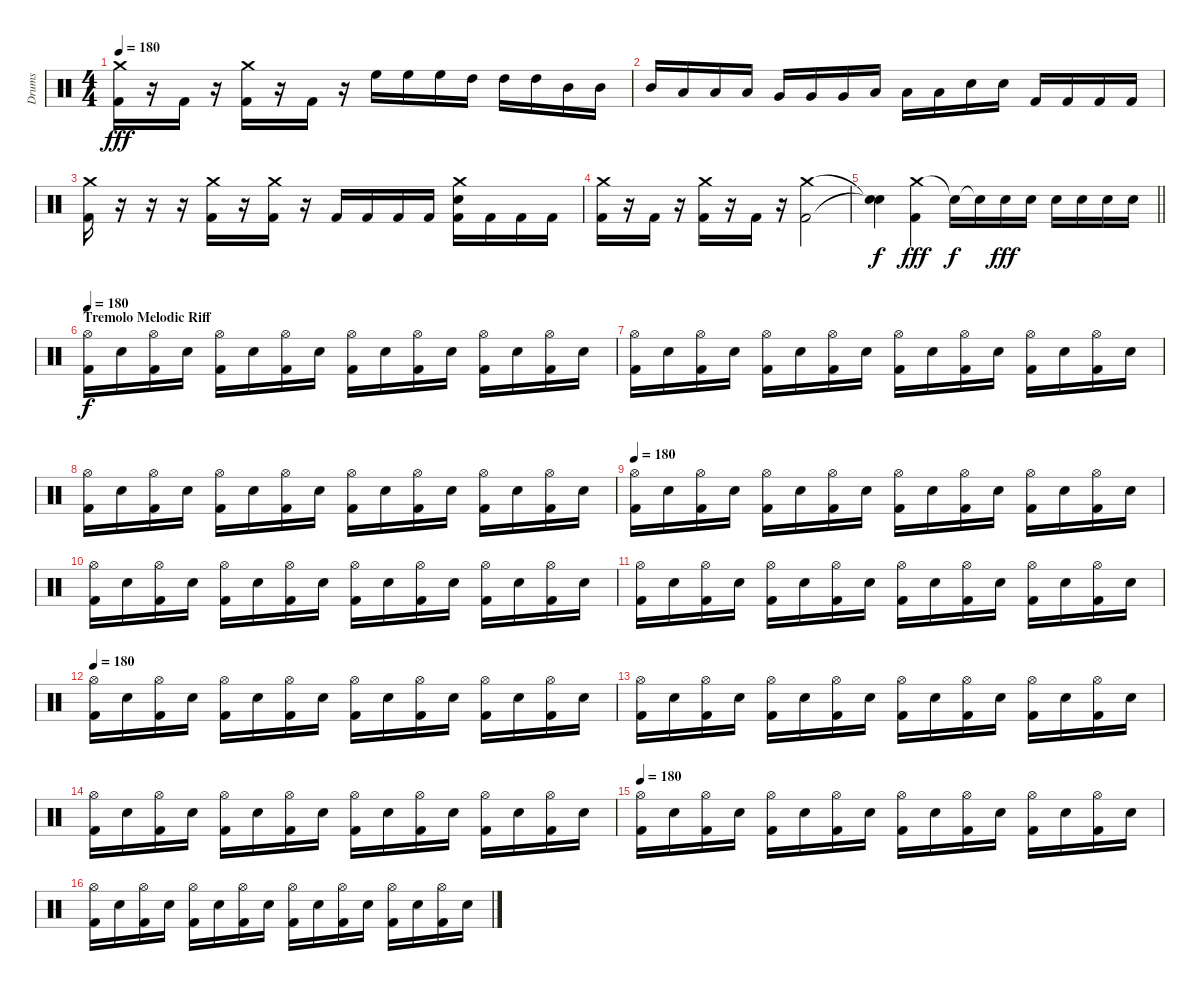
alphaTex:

\track ("Drums" "Drums") {instrument percussion}
\staff {score}
\articulation defaults
\ts (4 4)
\tempo 180
\clef neutral
\ks c
("Crash medium (hit)" "Kick (hit) 2").16{dy fff} r.16 "Kick (hit) 2".16 r.16 ("Crash medium (hit)" "Kick (hit) 2").16 r.16 "Kick (hit) 2".16 r.16 "High Floor Tom (hit)".16 "High Floor Tom (hit)".16 "High Floor Tom (hit)".16 "High Tom (hit)".16 "High Tom (hit)".16 "High Tom (hit)".16 "Mid Tom (hit)".16 "Mid Tom (hit)".16 |
"Mid Tom (hit)".16 "Low Tom (hit)".16 "Low Tom (hit)".16 "Low Tom (hit)".16 "Very Low Tom (hit)".16 "Very Low Tom (hit)".16 "Very Low Tom (hit)".16 "Low Floor Tom (hit)".16 "Low Floor Tom (hit)".16 "Low Floor Tom (hit)".16 "Electric Snare (hit)".16 "Electric Snare (hit)".16 "Kick (hit) 2".16 "Kick (hit) 2".16 "Kick (hit) 2".16 "Kick (hit) 2".16 |
("Crash medium (hit)" "Kick (hit) 2").16 r.16 r.16 r.16 ("Crash medium (hit)" "Kick (hit) 2").16 r.16 ("Crash medium (hit)" "Kick (hit) 2").16 r.16 "Kick (hit) 2".16 "Kick (hit) 2".16 "Kick (hit) 2".16 "Kick (hit) 2".16 ("Crash medium (hit)" "Electric Snare (hit)" "Kick (hit) 2").16 "Kick (hit) 2".16 "Kick (hit) 2".16 "Kick (hit) 2".16 |
("Crash medium (hit)" "Kick (hit) 2").16 r.16 "Kick (hit) 2".16 r.16 ("Crash medium (hit)" "Kick (hit) 2").16 r.16 "Kick (hit) 2".16 r.16 ("Crash medium (hit)" "Kick (hit) 2").2 |
\barLineRight lightlight
("Snare (hit)"{t} "Snare (hit)"{t}).4{dy f} ("Crash medium (hit)" "Kick (hit) 2").4{dy fff} "Electric Snare (hit)"{t}.16{dy f} "Electric Snare (hit)"{t}.16 "Electric Snare (hit)".16{dy fff} "Electric Snare (hit)".16 "Electric Snare (hit)".16 "Electric Snare (hit)".16 "Electric Snare (hit)".16 "Electric Snare (hit)".16 |
\section ("" "Tremolo Melodic Riff")
\tempo 180
("Hi-Hat (open)" "Kick (hit) 2").16{dy f} "Electric Snare (hit)".16 ("Hi-Hat (open)" "Kick (hit) 2").16 "Electric Snare (hit)".16 ("Hi-Hat (open)" "Kick (hit) 2").16 "Electric Snare (hit)".16 ("Hi-Hat (open)" "Kick (hit) 2").16 "Electric Snare (hit)".16 ("Hi-Hat (open)" "Kick (hit) 2").16 "Electric Snare (hit)".16 ("Hi-Hat (open)" "Kick (hit) 2").16 "Electric Snare (hit)".16 ("Hi-Hat (open)" "Kick (hit) 2").16 "Electric Snare (hit)".16 ("Hi-Hat (open)" "Kick (hit) 2").16 "Electric Snare (hit)".16 |
("Hi-Hat (open)" "Kick (hit) 2").16 "Electric Snare (hit)".16 ("Hi-Hat (open)" "Kick (hit) 2").16 "Electric Snare (hit)".16 ("Hi-Hat (open)" "Kick (hit) 2").16 "Electric Snare (hit)".16 ("Hi-Hat (open)" "Kick (hit) 2").16 "Electric Snare (hit)".16 ("Hi-Hat (open)" "Kick (hit) 2").16 "Electric Snare (hit)".16 ("Hi-Hat (open)" "Kick (hit) 2").16 "Electric Snare (hit)".16 ("Hi-Hat (open)" "Kick (hit) 2").16 "Electric Snare (hit)".16 ("Hi-Hat (open)" "Kick (hit) 2").16 "Electric Snare (hit)".16 |
("Hi-Hat (open)" "Kick (hit) 2").16 "Electric Snare (hit)".16 ("Hi-Hat (open)" "Kick (hit) 2").16 "Electric Snare (hit)".16 ("Hi-Hat (open)" "Kick (hit) 2").16 "Electric Snare (hit)".16 ("Hi-Hat (open)" "Kick (hit) 2").16 "Electric Snare (hit)".16 ("Hi-Hat (open)" "Kick (hit) 2").16 "Electric Snare (hit)".16 ("Hi-Hat (open)" "Kick (hit) 2").16 "Electric Snare (hit)".16 ("Hi-Hat (open)" "Kick (hit) 2").16 "Electric Snare (hit)".16 ("Hi-Hat (open)" "Kick (hit) 2").16 "Electric Snare (hit)".16 |
\tempo 180
("Hi-Hat (open)" "Kick (hit) 2").16 "Electric Snare (hit)".16 ("Hi-Hat (open)" "Kick (hit) 2").16 "Electric Snare (hit)".16 ("Hi-Hat (open)" "Kick (hit) 2").16 "Electric Snare (hit)".16 ("Hi-Hat (open)" "Kick (hit) 2").16 "Electric Snare (hit)".16 ("Hi-Hat (open)" "Kick (hit) 2").16 "Electric Snare (hit)".16 ("Hi-Hat (open)" "Kick (hit) 2").16 "Electric Snare (hit)".16 ("Hi-Hat (open)" "Kick (hit) 2").16 "Electric Snare (hit)".16 ("Hi-Hat (open)" "Kick (hit) 2").16 "Electric Snare (hit)".16 |
("Hi-Hat (open)" "Kick (hit) 2").16 "Electric Snare (hit)".16 ("Hi-Hat (open)" "Kick (hit) 2").16 "Electric Snare (hit)".16 ("Hi-Hat (open)" "Kick (hit) 2").16 "Electric Snare (hit)".16 ("Hi-Hat (open)" "Kick (hit) 2").16 "Electric Snare (hit)".16 ("Hi-Hat (open)" "Kick (hit) 2").16 "Electric Snare (hit)".16 ("Hi-Hat (open)" "Kick (hit) 2").16 "Electric Snare (hit)".16 ("Hi-Hat (open)" "Kick (hit) 2").16 "Electric Snare (hit)".16 ("Hi-Hat (open)" "Kick (hit) 2").16 "Electric Snare (hit)".16 |
("Hi-Hat (open)" "Kick (hit) 2").16 "Electric Snare (hit)".16 ("Hi-Hat (open)" "Kick (hit) 2").16 "Electric Snare (hit)".16 ("Hi-Hat (open)" "Kick (hit) 2").16 "Electric Snare (hit)".16 ("Hi-Hat (open)" "Kick (hit) 2").16 "Electric Snare (hit)".16 ("Hi-Hat (open)" "Kick (hit) 2").16 "Electric Snare (hit)".16 ("Hi-Hat (open)" "Kick (hit) 2").16 "Electric Snare (hit)".16 ("Hi-Hat (open)" "Kick (hit) 2").16 "Electric Snare (hit)".16 ("Hi-Hat (open)" "Kick (hit) 2").16 "Electric Snare (hit)".16 |
\tempo 180
("Hi-Hat (open)" "Kick (hit) 2").16 "Electric Snare (hit)".16 ("Hi-Hat (open)" "Kick (hit) 2").16 "Electric Snare (hit)".16 ("Hi-Hat (open)" "Kick (hit) 2").16 "Electric Snare (hit)".16 ("Hi-Hat (open)" "Kick (hit) 2").16 "Electric Snare (hit)".16 ("Hi-Hat (open)" "Kick (hit) 2").16 "Electric Snare (hit)".16 ("Hi-Hat (open)" "Kick (hit) 2").16 "Electric Snare (hit)".16 ("Hi-Hat (open)" "Kick (hit) 2").16 "Electric Snare (hit)".16 ("Hi-Hat (open)" "Kick (hit) 2").16 "Electric Snare (hit)".16 |
("Hi-Hat (open)" "Kick (hit) 2").16 "Electric Snare (hit)".16 ("Hi-Hat (open)" "Kick (hit) 2").16 "Electric Snare (hit)".16 ("Hi-Hat (open)" "Kick (hit) 2").16 "Electric Snare (hit)".16 ("Hi-Hat (open)" "Kick (hit) 2").16 "Electric Snare (hit)".16 ("Hi-Hat (open)" "Kick (hit) 2").16 "Electric Snare (hit)".16 ("Hi-Hat (open)" "Kick (hit) 2").16 "Electric Snare (hit)".16 ("Hi-Hat (open)" "Kick (hit) 2").16 "Electric Snare (hit)".16 ("Hi-Hat (open)" "Kick (hit) 2").16 "Electric Snare (hit)".16 |
("Hi-Hat (open)" "Kick (hit) 2").16 "Electric Snare (hit)".16 ("Hi-Hat (open)" "Kick (hit) 2").16 "Electric Snare (hit)".16 ("Hi-Hat (open)" "Kick (hit) 2").16 "Electric Snare (hit)".16 ("Hi-Hat (open)" "Kick (hit) 2").16 "Electric Snare (hit)".16 ("Hi-Hat (open)" "Kick (hit) 2").16 "Electric Snare (hit)".16 ("Hi-Hat (open)" "Kick (hit) 2").16 "Electric Snare (hit)".16 ("Hi-Hat (open)" "Kick (hit) 2").16 "Electric Snare (hit)".16 ("Hi-Hat (open)" "Kick (hit) 2").16 "Electric Snare (hit)".16 |
\tempo 180
("Hi-Hat (open)" "Kick (hit) 2").16 "Electric Snare (hit)".16 ("Hi-Hat (open)" "Kick (hit) 2").16 "Electric Snare (hit)".16 ("Hi-Hat (open)" "Kick (hit) 2").16 "Electric Snare (hit)".16 ("Hi-Hat (open)" "Kick (hit) 2").16 "Electric Snare (hit)".16 ("Hi-Hat (open)" "Kick (hit) 2").16 "Electric Snare (hit)".16 ("Hi-Hat (open)" "Kick (hit) 2").16 "Electric Snare (hit)".16 ("Hi-Hat (open)" "Kick (hit) 2").16 "Electric Snare (hit)".16 ("Hi-Hat (open)" "Kick (hit) 2").16 "Electric Snare (hit)".16 |
("Hi-Hat (open)" "Kick (hit) 2").16 "Electric Snare (hit)".16 ("Hi-Hat (open)" "Kick (hit) 2").16 "Electric Snare (hit)".16 ("Hi-Hat (open)" "Kick (hit) 2").16 "Electric Snare (hit)".16 ("Hi-Hat (open)" "Kick (hit) 2").16 "Electric Snare (hit)".16 ("Hi-Hat (open)" "Kick (hit) 2").16 "Electric Snare (hit)".16 ("Hi-Hat (open)" "Kick (hit) 2").16 "Electric Snare (hit)".16 ("Hi-Hat (open)" "Kick (hit) 2").16 "Electric Snare (hit)".16 ("Hi-Hat (open)" "Kick (hit) 2").16 "Electric Snare (hit)".16
